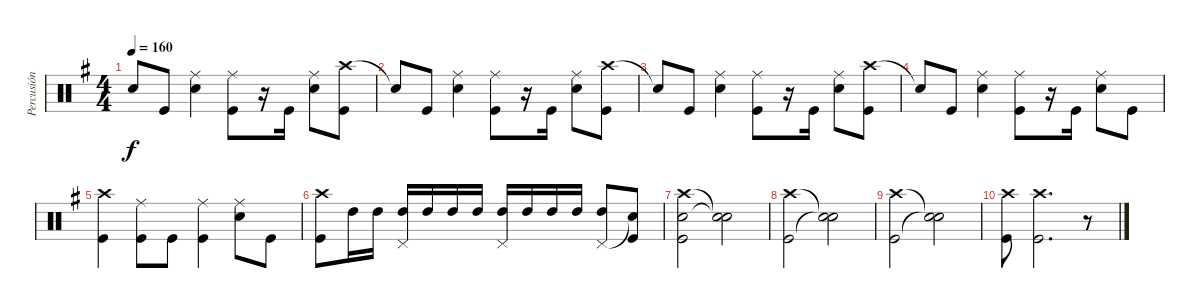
\track ("Percusión" "Percusión") {instrument percussion}
\staff {score}
\articulation defaults
\ts (4 4)
\tempo 160
\clef neutral
\ks g "Snare (hit)"{t}.8{dy f} "Kick (hit)".8
("Ride (middle)" "Snare (hit) 2").4 ("Ride (middle)" "Kick (hit)").8 r.16 "Kick (hit)".16 ("Ride (middle)" "Snare (hit) 2").8 ("Crash high (hit)" "Kick (hit)").8 |
"Snare (hit)"{t}.8 "Kick (hit)".8 ("Ride (middle)" "Snare (hit) 2").4 ("Ride (middle)" "Kick (hit)").8 r.16 "Kick (hit)".16 ("Ride (middle)" "Snare (hit) 2").8 ("Crash high (hit)" "Kick (hit)").8 |
"Snare (hit)"{t}.8 "Kick (hit)".8 ("Ride (middle)" "Snare (hit) 2").4 ("Ride (middle)" "Kick (hit)").8 r.16 "Kick (hit)".16 ("Ride (middle)" "Snare (hit) 2").8 ("Crash high (hit)" "Kick (hit)").8 |
"Snare (hit)"{t}.8 "Kick (hit)".8 ("Ride (middle)" "Snare (hit) 2").4 ("Ride (middle)" "Kick (hit)").8 r.16 "Kick (hit)".16 ("Ride (middle)" "Snare (hit) 2").8 "Kick (hit)".8 |
("Crash high (hit)" "Kick (hit)").4 ("Ride (middle)" "Kick (hit)").8 "Kick (hit)".8 ("Ride (middle)" "Kick (hit)").4 ("Ride (middle)" "Snare (hit) 2").8 "Kick (hit)".8 |
("Crash high (hit)" "Kick (hit)").8 "High Tom (hit)".16 "High Tom (hit)".16 ("Pedal Hi-Hat (hit)" "High Tom (hit)").16 "High Tom (hit)".16 "High Tom (hit)".16 "High Tom (hit)".16 ("Pedal Hi-Hat (hit)" "High Tom (hit)").16 "High Tom (hit)".16 "High Tom (hit)".16 "High Tom (hit)".16 ("Pedal Hi-Hat (hit)" "High Tom (hit)").8 ("Snare (hit)"{t} "Kick (hit)").8 |
("Crash high (hit)" "Snare (hit) 2" "Kick (hit)").2 ("Snare (hit)"{t} "Snare (hit)"{t}).2 |
("Crash high (hit)" "Kick (hit)").2 ("Snare (hit)"{t} "Snare (hit)"{t}).2 |
("Crash high (hit)" "Kick (hit)").2 ("Snare (hit)"{t} "Snare (hit)"{t}).2 |
("Crash high (hit)" "Kick (hit)").8 ("Crash high (hit)" "Kick (hit)").2{d} r.8
